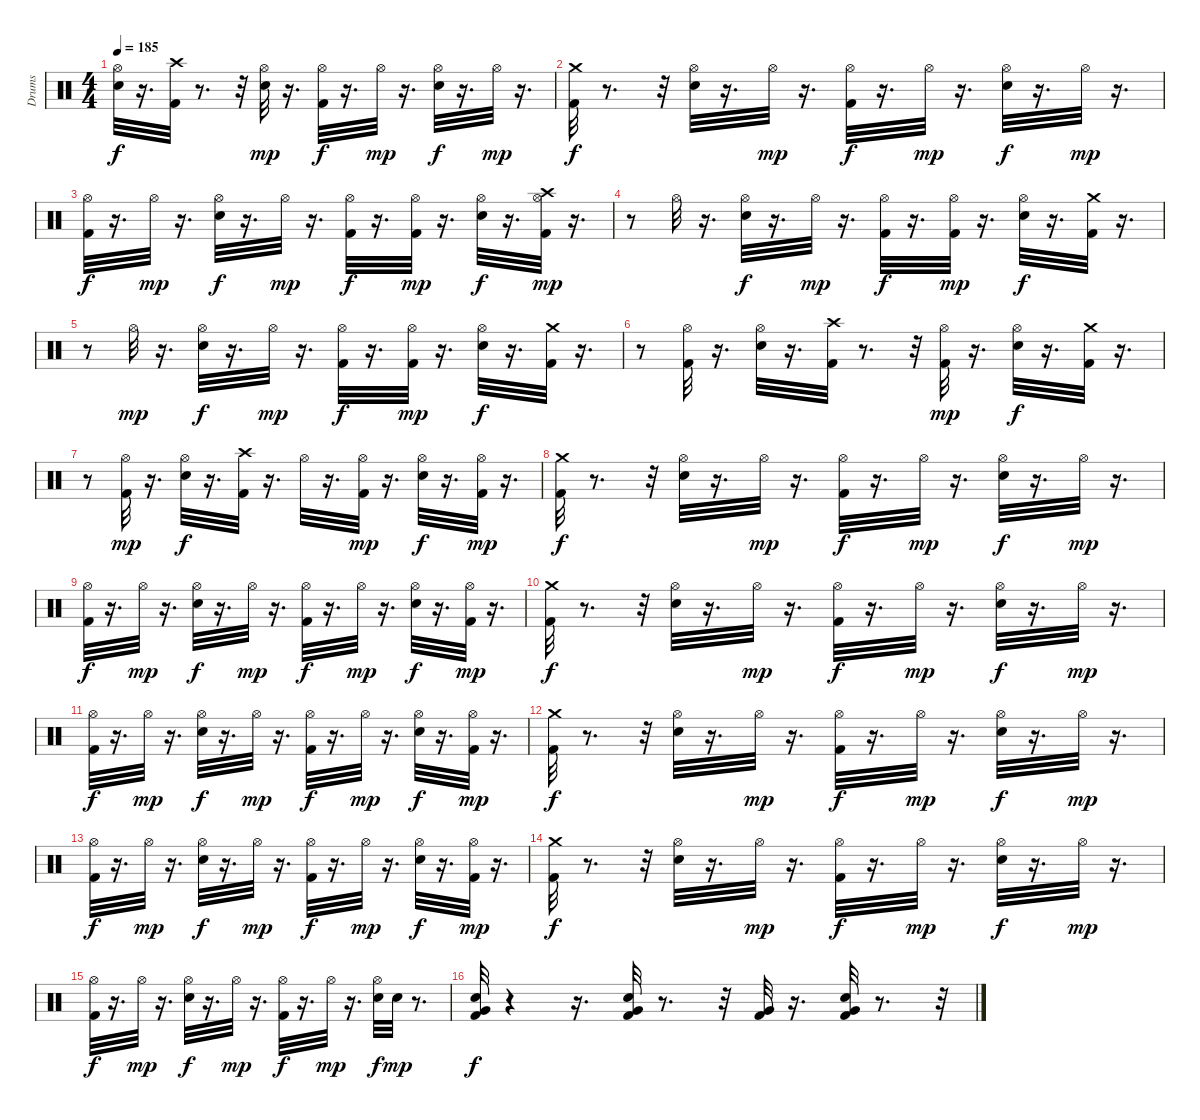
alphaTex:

\track ("Drums" "Drums") {instrument percussion}
\staff {score}
\articulation defaults
\ts (4 4)
\tempo 185
\clef neutral
\ks c
("Electric Snare (hit)" "Hi-Hat (open)").32{dy f} r.16{d} ("Crash high (hit)" "Kick (hit) 2").32 r.8{d} r.32 ("Electric Snare (hit)" "Hi-Hat (open)").32{dy mp} r.16{d} ("Kick (hit) 2" "Hi-Hat (open)").32{dy f} r.16{d} "Hi-Hat (open)".32{dy mp} r.16{d} ("Hi-Hat (open)" "Electric Snare (hit)").32{dy f} r.16{d} "Hi-Hat (open)".32{dy mp} r.16{d} |
("Crash medium (hit)" "Kick (hit) 2").32{dy f} r.8{d} r.32 ("Hi-Hat (open)" "Electric Snare (hit)").32 r.16{d} "Hi-Hat (open)".32{dy mp} r.16{d} ("Hi-Hat (open)" "Kick (hit) 2").32{dy f} r.16{d} "Hi-Hat (open)".32{dy mp} r.16{d} ("Hi-Hat (open)" "Electric Snare (hit)").32{dy f} r.16{d} "Hi-Hat (open)".32{dy mp} r.16{d} |
("Hi-Hat (open)" "Kick (hit) 2").32{dy f} r.16{d} "Hi-Hat (open)".32{dy mp} r.16{d} ("Hi-Hat (open)" "Electric Snare (hit)").32{dy f} r.16{d} "Hi-Hat (open)".32{dy mp} r.16{d} ("Hi-Hat (open)" "Kick (hit) 2").32{dy f} r.16{d} ("Kick (hit) 2" "Hi-Hat (open)").32{dy mp} r.16{d} ("Hi-Hat (open)" "Electric Snare (hit)").32{dy f} r.16{d} ("Hi-Hat (open)" "Crash high (hit)" "Kick (hit) 2").32{dy mp} r.16{d} |
r.8 "Hi-Hat (open)".32 r.16{d} ("Hi-Hat (open)" "Electric Snare (hit)").32{dy f} r.16{d} "Hi-Hat (open)".32{dy mp} r.16{d} ("Hi-Hat (open)" "Kick (hit) 2").32{dy f} r.16{d} ("Hi-Hat (open)" "Kick (hit) 2").32{dy mp} r.16{d} ("Hi-Hat (open)" "Electric Snare (hit)").32{dy f} r.16{d} ("Crash medium (hit)" "Kick (hit) 2").32 r.16{d} |
r.8 "Hi-Hat (open)".32{dy mp} r.16{d} ("Hi-Hat (open)" "Electric Snare (hit)").32{dy f} r.16{d} "Hi-Hat (open)".32{dy mp} r.16{d} ("Hi-Hat (open)" "Kick (hit) 2").32{dy f} r.16{d} ("Hi-Hat (open)" "Kick (hit) 2").32{dy mp} r.16{d} ("Hi-Hat (open)" "Electric Snare (hit)").32{dy f} r.16{d} ("Crash medium (hit)" "Kick (hit) 2").32 r.16{d} |
r.8 ("Hi-Hat (open)" "Kick (hit) 2").32 r.16{d} ("Hi-Hat (open)" "Electric Snare (hit)").32 r.16{d} ("Crash high (hit)" "Kick (hit) 2").32 r.8{d} r.32 ("Hi-Hat (open)" "Kick (hit) 2").32{dy mp} r.16{d} ("Hi-Hat (open)" "Electric Snare (hit)").32{dy f} r.16{d} ("Crash medium (hit)" "Kick (hit) 2").32 r.16{d} |
r.8 ("Hi-Hat (open)" "Kick (hit) 2").32{dy mp} r.16{d} ("Hi-Hat (open)" "Electric Snare (hit)").32{dy f} r.16{d} ("Crash high (hit)" "Kick (hit) 2").32 r.16{d} "Hi-Hat (open)".32 r.16{d} ("Hi-Hat (open)" "Kick (hit) 2").32{dy mp} r.16{d} ("Hi-Hat (open)" "Electric Snare (hit)").32{dy f} r.16{d} ("Hi-Hat (open)" "Kick (hit) 2").32{dy mp} r.16{d} |
("Crash medium (hit)" "Kick (hit) 2").32{dy f} r.8{d} r.32 ("Hi-Hat (open)" "Electric Snare (hit)").32 r.16{d} "Hi-Hat (open)".32{dy mp} r.16{d} ("Hi-Hat (open)" "Kick (hit) 2").32{dy f} r.16{d} "Hi-Hat (open)".32{dy mp} r.16{d} ("Hi-Hat (open)" "Electric Snare (hit)").32{dy f} r.16{d} "Hi-Hat (open)".32{dy mp} r.16{d} |
("Hi-Hat (open)" "Kick (hit) 2").32{dy f} r.16{d} "Hi-Hat (open)".32{dy mp} r.16{d} ("Hi-Hat (open)" "Electric Snare (hit)").32{dy f} r.16{d} "Hi-Hat (open)".32{dy mp} r.16{d} ("Hi-Hat (open)" "Kick (hit) 2").32{dy f} r.16{d} "Hi-Hat (open)".32{dy mp} r.16{d} ("Hi-Hat (open)" "Electric Snare (hit)").32{dy f} r.16{d} ("Kick (hit) 2" "Hi-Hat (open)").32{dy mp} r.16{d} |
("Crash medium (hit)" "Kick (hit) 2").32{dy f} r.8{d} r.32 ("Hi-Hat (open)" "Electric Snare (hit)").32 r.16{d} "Hi-Hat (open)".32{dy mp} r.16{d} ("Hi-Hat (open)" "Kick (hit) 2").32{dy f} r.16{d} "Hi-Hat (open)".32{dy mp} r.16{d} ("Hi-Hat (open)" "Electric Snare (hit)").32{dy f} r.16{d} "Hi-Hat (open)".32{dy mp} r.16{d} |
("Hi-Hat (open)" "Kick (hit) 2").32{dy f} r.16{d} "Hi-Hat (open)".32{dy mp} r.16{d} ("Hi-Hat (open)" "Electric Snare (hit)").32{dy f} r.16{d} "Hi-Hat (open)".32{dy mp} r.16{d} ("Hi-Hat (open)" "Kick (hit) 2").32{dy f} r.16{d} "Hi-Hat (open)".32{dy mp} r.16{d} ("Hi-Hat (open)" "Electric Snare (hit)").32{dy f} r.16{d} ("Kick (hit) 2" "Hi-Hat (open)").32{dy mp} r.16{d} |
("Crash medium (hit)" "Kick (hit) 2").32{dy f} r.8{d} r.32 ("Hi-Hat (open)" "Electric Snare (hit)").32 r.16{d} "Hi-Hat (open)".32{dy mp} r.16{d} ("Hi-Hat (open)" "Kick (hit) 2").32{dy f} r.16{d} "Hi-Hat (open)".32{dy mp} r.16{d} ("Hi-Hat (open)" "Electric Snare (hit)").32{dy f} r.16{d} "Hi-Hat (open)".32{dy mp} r.16{d} |
("Hi-Hat (open)" "Kick (hit) 2").32{dy f} r.16{d} "Hi-Hat (open)".32{dy mp} r.16{d} ("Hi-Hat (open)" "Electric Snare (hit)").32{dy f} r.16{d} "Hi-Hat (open)".32{dy mp} r.16{d} ("Hi-Hat (open)" "Kick (hit) 2").32{dy f} r.16{d} "Hi-Hat (open)".32{dy mp} r.16{d} ("Hi-Hat (open)" "Electric Snare (hit)").32{dy f} r.16{d} ("Kick (hit) 2" "Hi-Hat (open)").32{dy mp} r.16{d} |
("Crash medium (hit)" "Kick (hit) 2").32{dy f} r.8{d} r.32 ("Hi-Hat (open)" "Electric Snare (hit)").32 r.16{d} "Hi-Hat (open)".32{dy mp} r.16{d} ("Hi-Hat (open)" "Kick (hit) 2").32{dy f} r.16{d} "Hi-Hat (open)".32{dy mp} r.16{d} ("Hi-Hat (open)" "Electric Snare (hit)").32{dy f} r.16{d} "Hi-Hat (open)".32{dy mp} r.16{d} |
("Hi-Hat (open)" "Kick (hit) 2").32{dy f} r.16{d} "Hi-Hat (open)".32{dy mp} r.16{d} ("Hi-Hat (open)" "Electric Snare (hit)").32{dy f} r.16{d} "Hi-Hat (open)".32{dy mp} r.16{d} ("Hi-Hat (open)" "Kick (hit) 2").32{dy f} r.16{d} "Hi-Hat (open)".32{dy mp} r.16{d} ("Hi-Hat (open)" "Electric Snare (hit)").32{dy f} "Snare (hit) 2".32{dy mp} r.8{d} |
("Very Low Tom (hit)" "Electric Snare (hit)" "Kick (hit) 2").32{dy f} r.4 r.16{d} ("Very Low Tom (hit)" "Kick (hit) 2" "Electric Snare (hit)").32 r.8{d} r.32 ("Very Low Tom (hit)" "Kick (hit) 2").32 r.16{d} ("Very Low Tom (hit)" "Kick (hit) 2" "Electric Snare (hit)").32 r.8{d} r.32
